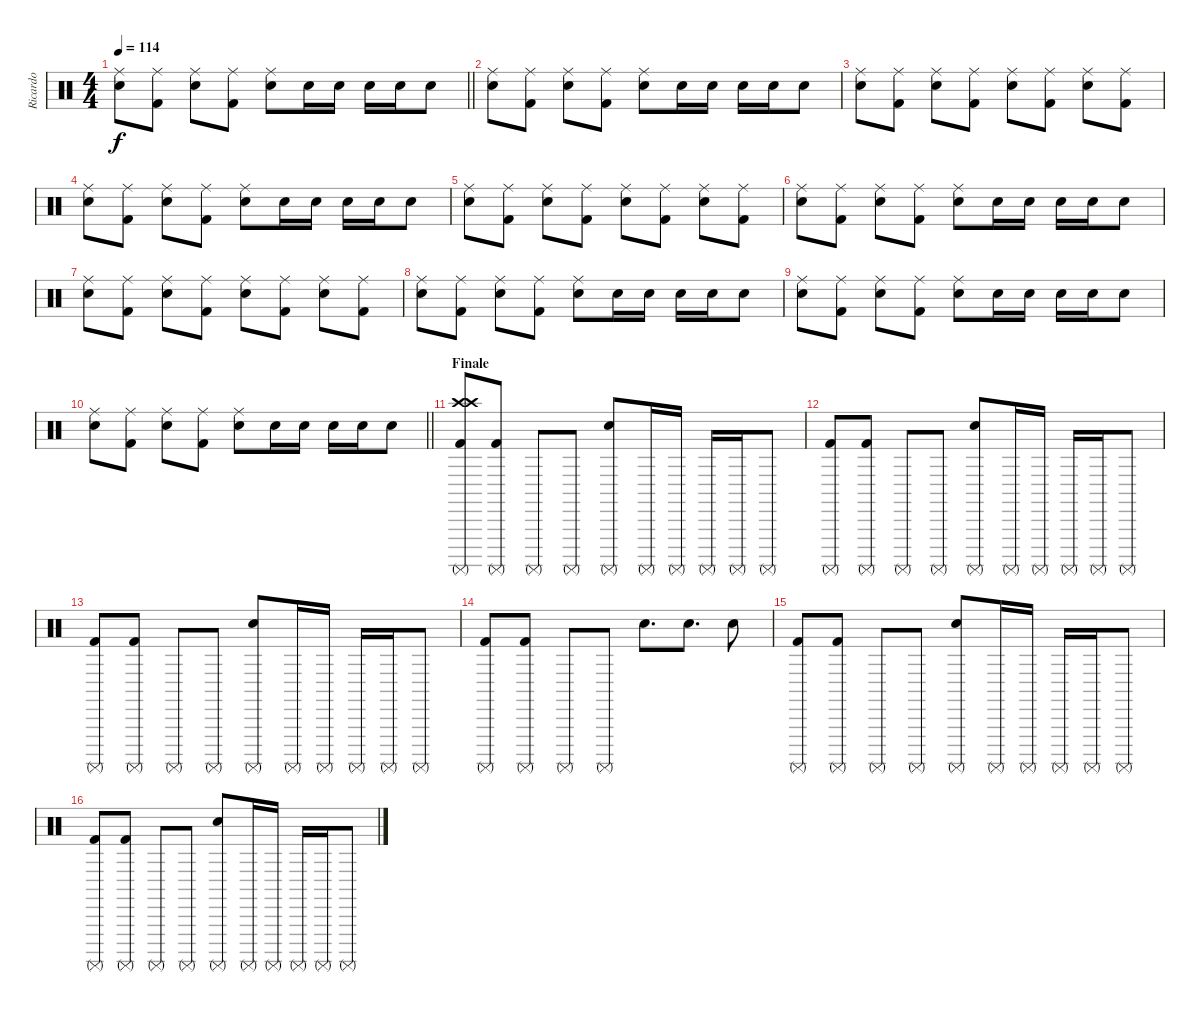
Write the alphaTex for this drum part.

\track ("Ricardo" "Ricardo") {instrument percussion}
\staff {score}
\articulation defaults
\ts (4 4)
\tempo 114
\clef neutral
\barLineRight lightlight
\ks c
("Ride (middle)" "Snare (hit) 2").8{dy f} ("Ride (middle)" "Kick (hit) 2").8 ("Ride (middle)" "Snare (hit) 2").8 ("Ride (middle)" "Kick (hit) 2").8 ("Ride (middle)" "Snare (hit) 2").8 "Snare (hit) 2".16 "Snare (hit) 2".16 "Snare (hit) 2".16 "Snare (hit) 2".16 "Snare (hit) 2".8 |
\section ("" "")
("Ride (middle)" "Snare (hit) 2").8 ("Ride (middle)" "Kick (hit) 2").8 ("Ride (middle)" "Snare (hit) 2").8 ("Ride (middle)" "Kick (hit) 2").8 ("Ride (middle)" "Snare (hit) 2").8 "Snare (hit) 2".16 "Snare (hit) 2".16 "Snare (hit) 2".16 "Snare (hit) 2".16 "Snare (hit) 2".8 |
("Ride (middle)" "Snare (hit) 2").8 ("Ride (middle)" "Kick (hit) 2").8 ("Ride (middle)" "Snare (hit) 2").8 ("Ride (middle)" "Kick (hit) 2").8 ("Ride (middle)" "Snare (hit) 2").8 ("Ride (middle)" "Kick (hit) 2").8 ("Ride (middle)" "Snare (hit) 2").8 ("Ride (middle)" "Kick (hit) 2").8 |
("Ride (middle)" "Snare (hit) 2").8 ("Ride (middle)" "Kick (hit) 2").8 ("Ride (middle)" "Snare (hit) 2").8 ("Ride (middle)" "Kick (hit) 2").8 ("Ride (middle)" "Snare (hit) 2").8 "Snare (hit) 2".16 "Snare (hit) 2".16 "Snare (hit) 2".16 "Snare (hit) 2".16 "Snare (hit) 2".8 |
("Ride (middle)" "Snare (hit) 2").8 ("Ride (middle)" "Kick (hit) 2").8 ("Ride (middle)" "Snare (hit) 2").8 ("Ride (middle)" "Kick (hit) 2").8 ("Ride (middle)" "Snare (hit) 2").8 ("Ride (middle)" "Kick (hit) 2").8 ("Ride (middle)" "Snare (hit) 2").8 ("Ride (middle)" "Kick (hit) 2").8 |
("Ride (middle)" "Snare (hit) 2").8 ("Ride (middle)" "Kick (hit) 2").8 ("Ride (middle)" "Snare (hit) 2").8 ("Ride (middle)" "Kick (hit) 2").8 ("Ride (middle)" "Snare (hit) 2").8 "Snare (hit) 2".16 "Snare (hit) 2".16 "Snare (hit) 2".16 "Snare (hit) 2".16 "Snare (hit) 2".8 |
("Ride (middle)" "Snare (hit) 2").8 ("Ride (middle)" "Kick (hit) 2").8 ("Ride (middle)" "Snare (hit) 2").8 ("Ride (middle)" "Kick (hit) 2").8 ("Ride (middle)" "Snare (hit) 2").8 ("Ride (middle)" "Kick (hit) 2").8 ("Ride (middle)" "Snare (hit) 2").8 ("Ride (middle)" "Kick (hit) 2").8 |
("Ride (middle)" "Snare (hit) 2").8 ("Ride (middle)" "Kick (hit) 2").8 ("Ride (middle)" "Snare (hit) 2").8 ("Ride (middle)" "Kick (hit) 2").8 ("Ride (middle)" "Snare (hit) 2").8 "Snare (hit) 2".16 "Snare (hit) 2".16 "Snare (hit) 2".16 "Snare (hit) 2".16 "Snare (hit) 2".8 |
("Ride (middle)" "Snare (hit) 2").8 ("Ride (middle)" "Kick (hit) 2").8 ("Ride (middle)" "Snare (hit) 2").8 ("Ride (middle)" "Kick (hit) 2").8 ("Ride (middle)" "Snare (hit) 2").8 "Snare (hit) 2".16 "Snare (hit) 2".16 "Snare (hit) 2".16 "Snare (hit) 2".16 "Snare (hit) 2".8 |
\barLineRight lightlight
("Ride (middle)" "Snare (hit) 2").8 ("Ride (middle)" "Kick (hit) 2").8 ("Ride (middle)" "Snare (hit) 2").8 ("Ride (middle)" "Kick (hit) 2").8 ("Ride (middle)" "Snare (hit) 2").8 "Snare (hit) 2".16 "Snare (hit) 2".16 "Snare (hit) 2".16 "Snare (hit) 2".16 "Snare (hit) 2".8 |
\section ("" "Finale")
("Crash high (hit)" "Crash high (hit)" "Kick (hit) 2" "Surdo (mute)").8 ("Kick (hit) 2" "Surdo (mute)").8 "Surdo (mute)".8 "Surdo (mute)".8 ("Snare (hit) 2" "Surdo (mute)").8 "Surdo (mute)".16 "Surdo (mute)".16 "Surdo (mute)".16 "Surdo (mute)".16 "Surdo (mute)".8 |
("Kick (hit) 2" "Surdo (mute)").8 ("Kick (hit) 2" "Surdo (mute)").8 "Surdo (mute)".8 "Surdo (mute)".8 ("Snare (hit) 2" "Surdo (mute)").8 "Surdo (mute)".16 "Surdo (mute)".16 "Surdo (mute)".16 "Surdo (mute)".16 "Surdo (mute)".8 |
("Kick (hit) 2" "Surdo (mute)").8 ("Kick (hit) 2" "Surdo (mute)").8 "Surdo (mute)".8 "Surdo (mute)".8 ("Snare (hit) 2" "Surdo (mute)").8 "Surdo (mute)".16 "Surdo (mute)".16 "Surdo (mute)".16 "Surdo (mute)".16 "Surdo (mute)".8 |
("Kick (hit) 2" "Surdo (mute)").8 ("Kick (hit) 2" "Surdo (mute)").8 "Surdo (mute)".8 "Surdo (mute)".8 "Snare (hit) 2".8{d} "Snare (hit) 2".8{d} "Snare (hit) 2".8 |
("Kick (hit) 2" "Surdo (mute)").8 ("Kick (hit) 2" "Surdo (mute)").8 "Surdo (mute)".8 "Surdo (mute)".8 ("Snare (hit) 2" "Surdo (mute)").8 "Surdo (mute)".16 "Surdo (mute)".16 "Surdo (mute)".16 "Surdo (mute)".16 "Surdo (mute)".8 |
("Kick (hit) 2" "Surdo (mute)").8 ("Kick (hit) 2" "Surdo (mute)").8 "Surdo (mute)".8 "Surdo (mute)".8 ("Snare (hit) 2" "Surdo (mute)").8 "Surdo (mute)".16 "Surdo (mute)".16 "Surdo (mute)".16 "Surdo (mute)".16 "Surdo (mute)".8
